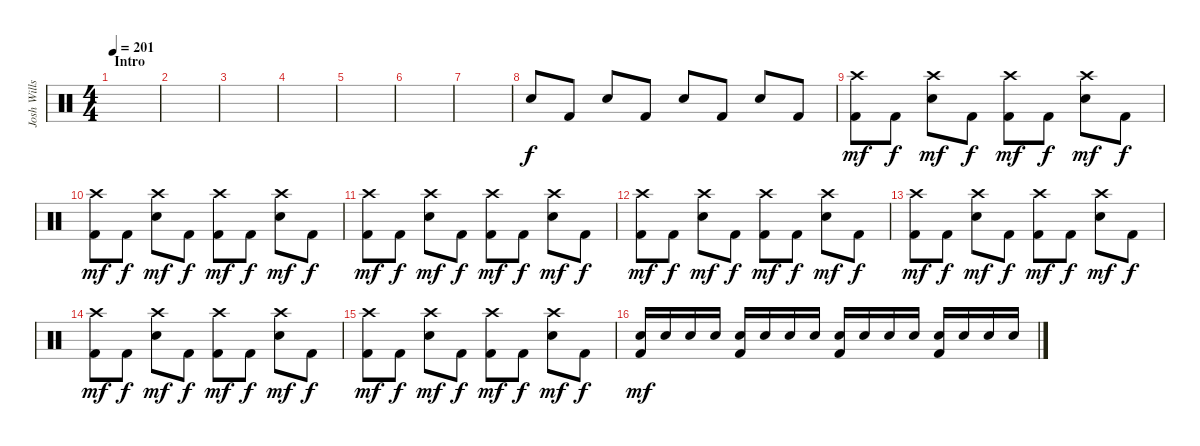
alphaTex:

\track ("Josh Wills" "Josh Wills") {instrument percussion}
\staff {score}
\articulation defaults
\ts (4 4)
\section ("" "Intro")
\tempo 201
\clef neutral
\ks c
|
|
|
|
|
|
|
"Snare (hit) 2".8 "Kick (hit) 2".8 "Snare (hit) 2".8 "Kick (hit) 2".8 "Snare (hit) 2".8 "Kick (hit) 2".8 "Snare (hit) 2".8 "Kick (hit) 2".8 |
("Crash high (hit)" "Kick (hit) 2").8{dy mf} "Kick (hit) 2".8{dy f} ("Crash high (hit)" "Snare (hit) 2").8{dy mf} "Kick (hit) 2".8{dy f} ("Crash high (hit)" "Kick (hit) 2").8{dy mf} "Kick (hit) 2".8{dy f} ("Crash high (hit)" "Snare (hit) 2").8{dy mf} "Kick (hit) 2".8{dy f} |
("Crash high (hit)" "Kick (hit) 2").8{dy mf} "Kick (hit) 2".8{dy f} ("Crash high (hit)" "Snare (hit) 2").8{dy mf} "Kick (hit) 2".8{dy f} ("Crash high (hit)" "Kick (hit) 2").8{dy mf} "Kick (hit) 2".8{dy f} ("Crash high (hit)" "Snare (hit) 2").8{dy mf} "Kick (hit) 2".8{dy f} |
("Crash high (hit)" "Kick (hit) 2").8{dy mf} "Kick (hit) 2".8{dy f} ("Crash high (hit)" "Snare (hit) 2").8{dy mf} "Kick (hit) 2".8{dy f} ("Crash high (hit)" "Kick (hit) 2").8{dy mf} "Kick (hit) 2".8{dy f} ("Crash high (hit)" "Snare (hit) 2").8{dy mf} "Kick (hit) 2".8{dy f} |
("Crash high (hit)" "Kick (hit) 2").8{dy mf} "Kick (hit) 2".8{dy f} ("Crash high (hit)" "Snare (hit) 2").8{dy mf} "Kick (hit) 2".8{dy f} ("Crash high (hit)" "Kick (hit) 2").8{dy mf} "Kick (hit) 2".8{dy f} ("Crash high (hit)" "Snare (hit) 2").8{dy mf} "Kick (hit) 2".8{dy f} |
("Crash high (hit)" "Kick (hit) 2").8{dy mf} "Kick (hit) 2".8{dy f} ("Crash high (hit)" "Snare (hit) 2").8{dy mf} "Kick (hit) 2".8{dy f} ("Crash high (hit)" "Kick (hit) 2").8{dy mf} "Kick (hit) 2".8{dy f} ("Crash high (hit)" "Snare (hit) 2").8{dy mf} "Kick (hit) 2".8{dy f} |
("Crash high (hit)" "Kick (hit) 2").8{dy mf} "Kick (hit) 2".8{dy f} ("Crash high (hit)" "Snare (hit) 2").8{dy mf} "Kick (hit) 2".8{dy f} ("Crash high (hit)" "Kick (hit) 2").8{dy mf} "Kick (hit) 2".8{dy f} ("Crash high (hit)" "Snare (hit) 2").8{dy mf} "Kick (hit) 2".8{dy f} |
("Crash high (hit)" "Kick (hit) 2").8{dy mf} "Kick (hit) 2".8{dy f} ("Crash high (hit)" "Snare (hit) 2").8{dy mf} "Kick (hit) 2".8{dy f} ("Crash high (hit)" "Kick (hit) 2").8{dy mf} "Kick (hit) 2".8{dy f} ("Crash high (hit)" "Snare (hit) 2").8{dy mf} "Kick (hit) 2".8{dy f} |
("Snare (hit) 2" "Kick (hit) 2").16{dy mf} "Snare (hit) 2".16 "Snare (hit) 2".16 "Snare (hit) 2".16 ("Snare (hit) 2" "Kick (hit) 2").16 "Snare (hit) 2".16 "Snare (hit) 2".16 "Snare (hit) 2".16 ("Snare (hit) 2" "Kick (hit) 2").16 "Snare (hit) 2".16 "Snare (hit) 2".16 "Snare (hit) 2".16 ("Snare (hit) 2" "Kick (hit) 2").16 "Snare (hit) 2".16 "Snare (hit) 2".16 "Snare (hit) 2".16
